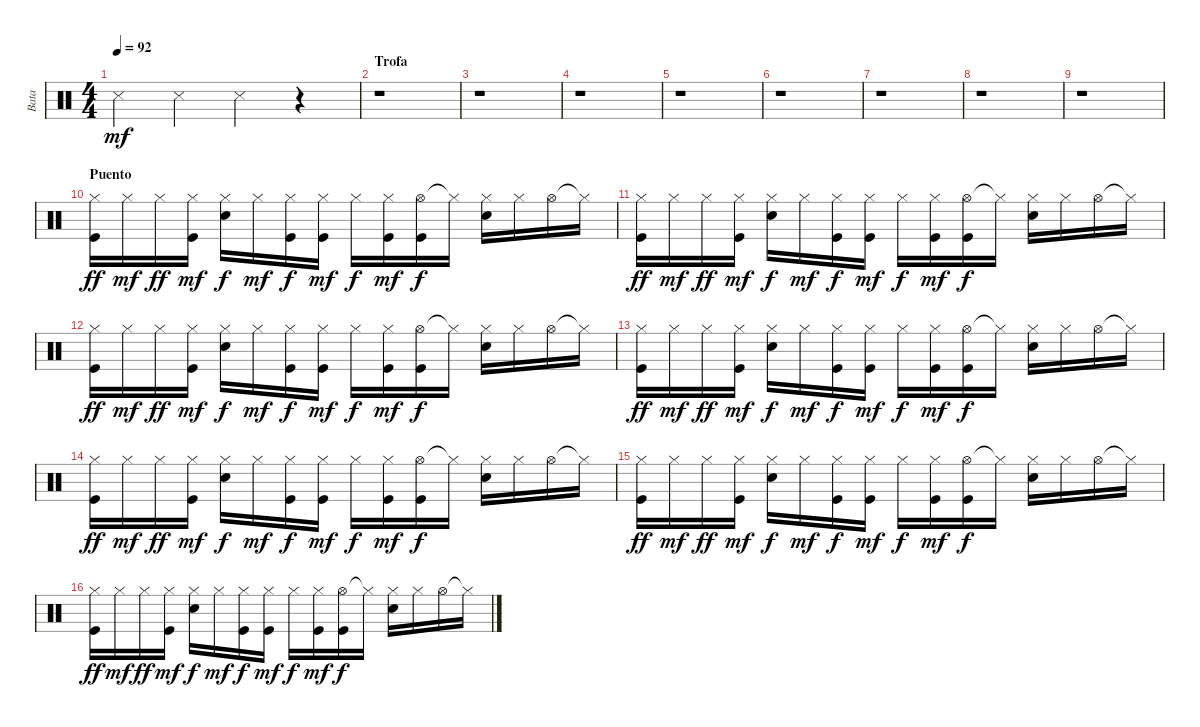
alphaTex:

\track ("Bata" "Bata") {instrument percussion}
\staff {score}
\articulation defaults
\ts (4 4)
\tempo 92
\clef neutral
\ks c "Metronome (hit)".4{dy mf} "Metronome (hit)".4 "Metronome (hit)".4
r.4 |
\section ("" "Trofa")
r.1 |
r.1 |
r.1 |
r.1 |
r.1 |
r.1 |
r.1 |
r.1 |
\section ("" "Puento")
("Hi-Hat (closed)" "Kick (hit)").16{dy ff} "Hi-Hat (closed)".16{dy mf} "Hi-Hat (closed)".16{dy ff} ("Hi-Hat (closed)" "Kick (hit)").16{dy mf} ("Hi-Hat (closed)" "Electric Snare (hit)").16{dy f} "Hi-Hat (closed)".16{dy mf} ("Hi-Hat (closed)" "Kick (hit)").16{dy f} ("Hi-Hat (closed)" "Kick (hit)").16{dy mf} "Hi-Hat (closed)".16{dy f} ("Hi-Hat (closed)" "Kick (hit)").16{dy mf} ("Hi-Hat (open)" "Kick (hit)").16{dy f} "Hi-Hat (closed)"{t}.16 ("Hi-Hat (closed)" "Electric Snare (hit)").16 "Hi-Hat (closed)".16 "Hi-Hat (open)".16 "Hi-Hat (closed)"{t}.16 |
("Hi-Hat (closed)" "Kick (hit)").16{dy ff} "Hi-Hat (closed)".16{dy mf} "Hi-Hat (closed)".16{dy ff} ("Hi-Hat (closed)" "Kick (hit)").16{dy mf} ("Hi-Hat (closed)" "Electric Snare (hit)").16{dy f} "Hi-Hat (closed)".16{dy mf} ("Hi-Hat (closed)" "Kick (hit)").16{dy f} ("Hi-Hat (closed)" "Kick (hit)").16{dy mf} "Hi-Hat (closed)".16{dy f} ("Hi-Hat (closed)" "Kick (hit)").16{dy mf} ("Hi-Hat (open)" "Kick (hit)").16{dy f} "Hi-Hat (closed)"{t}.16 ("Hi-Hat (closed)" "Electric Snare (hit)").16 "Hi-Hat (closed)".16 "Hi-Hat (open)".16 "Hi-Hat (closed)"{t}.16 |
("Hi-Hat (closed)" "Kick (hit)").16{dy ff} "Hi-Hat (closed)".16{dy mf} "Hi-Hat (closed)".16{dy ff} ("Hi-Hat (closed)" "Kick (hit)").16{dy mf} ("Hi-Hat (closed)" "Electric Snare (hit)").16{dy f} "Hi-Hat (closed)".16{dy mf} ("Hi-Hat (closed)" "Kick (hit)").16{dy f} ("Hi-Hat (closed)" "Kick (hit)").16{dy mf} "Hi-Hat (closed)".16{dy f} ("Hi-Hat (closed)" "Kick (hit)").16{dy mf} ("Hi-Hat (open)" "Kick (hit)").16{dy f} "Hi-Hat (closed)"{t}.16 ("Hi-Hat (closed)" "Electric Snare (hit)").16 "Hi-Hat (closed)".16 "Hi-Hat (open)".16 "Hi-Hat (closed)"{t}.16 |
("Hi-Hat (closed)" "Kick (hit)").16{dy ff} "Hi-Hat (closed)".16{dy mf} "Hi-Hat (closed)".16{dy ff} ("Hi-Hat (closed)" "Kick (hit)").16{dy mf} ("Hi-Hat (closed)" "Electric Snare (hit)").16{dy f} "Hi-Hat (closed)".16{dy mf} ("Hi-Hat (closed)" "Kick (hit)").16{dy f} ("Hi-Hat (closed)" "Kick (hit)").16{dy mf} "Hi-Hat (closed)".16{dy f} ("Hi-Hat (closed)" "Kick (hit)").16{dy mf} ("Hi-Hat (open)" "Kick (hit)").16{dy f} "Hi-Hat (closed)"{t}.16 ("Hi-Hat (closed)" "Electric Snare (hit)").16 "Hi-Hat (closed)".16 "Hi-Hat (open)".16 "Hi-Hat (closed)"{t}.16 |
("Hi-Hat (closed)" "Kick (hit)").16{dy ff} "Hi-Hat (closed)".16{dy mf} "Hi-Hat (closed)".16{dy ff} ("Hi-Hat (closed)" "Kick (hit)").16{dy mf} ("Hi-Hat (closed)" "Electric Snare (hit)").16{dy f} "Hi-Hat (closed)".16{dy mf} ("Hi-Hat (closed)" "Kick (hit)").16{dy f} ("Hi-Hat (closed)" "Kick (hit)").16{dy mf} "Hi-Hat (closed)".16{dy f} ("Hi-Hat (closed)" "Kick (hit)").16{dy mf} ("Hi-Hat (open)" "Kick (hit)").16{dy f} "Hi-Hat (closed)"{t}.16 ("Hi-Hat (closed)" "Electric Snare (hit)").16 "Hi-Hat (closed)".16 "Hi-Hat (open)".16 "Hi-Hat (closed)"{t}.16 |
("Hi-Hat (closed)" "Kick (hit)").16{dy ff} "Hi-Hat (closed)".16{dy mf} "Hi-Hat (closed)".16{dy ff} ("Hi-Hat (closed)" "Kick (hit)").16{dy mf} ("Hi-Hat (closed)" "Electric Snare (hit)").16{dy f} "Hi-Hat (closed)".16{dy mf} ("Hi-Hat (closed)" "Kick (hit)").16{dy f} ("Hi-Hat (closed)" "Kick (hit)").16{dy mf} "Hi-Hat (closed)".16{dy f} ("Hi-Hat (closed)" "Kick (hit)").16{dy mf} ("Hi-Hat (open)" "Kick (hit)").16{dy f} "Hi-Hat (closed)"{t}.16 ("Hi-Hat (closed)" "Electric Snare (hit)").16 "Hi-Hat (closed)".16 "Hi-Hat (open)".16 "Hi-Hat (closed)"{t}.16 |
("Hi-Hat (closed)" "Kick (hit)").16{dy ff} "Hi-Hat (closed)".16{dy mf} "Hi-Hat (closed)".16{dy ff} ("Hi-Hat (closed)" "Kick (hit)").16{dy mf} ("Hi-Hat (closed)" "Electric Snare (hit)").16{dy f} "Hi-Hat (closed)".16{dy mf} ("Hi-Hat (closed)" "Kick (hit)").16{dy f} ("Hi-Hat (closed)" "Kick (hit)").16{dy mf} "Hi-Hat (closed)".16{dy f} ("Hi-Hat (closed)" "Kick (hit)").16{dy mf} ("Hi-Hat (open)" "Kick (hit)").16{dy f} "Hi-Hat (closed)"{t}.16 ("Hi-Hat (closed)" "Electric Snare (hit)").16 "Hi-Hat (closed)".16 "Hi-Hat (open)".16 "Hi-Hat (closed)"{t}.16
